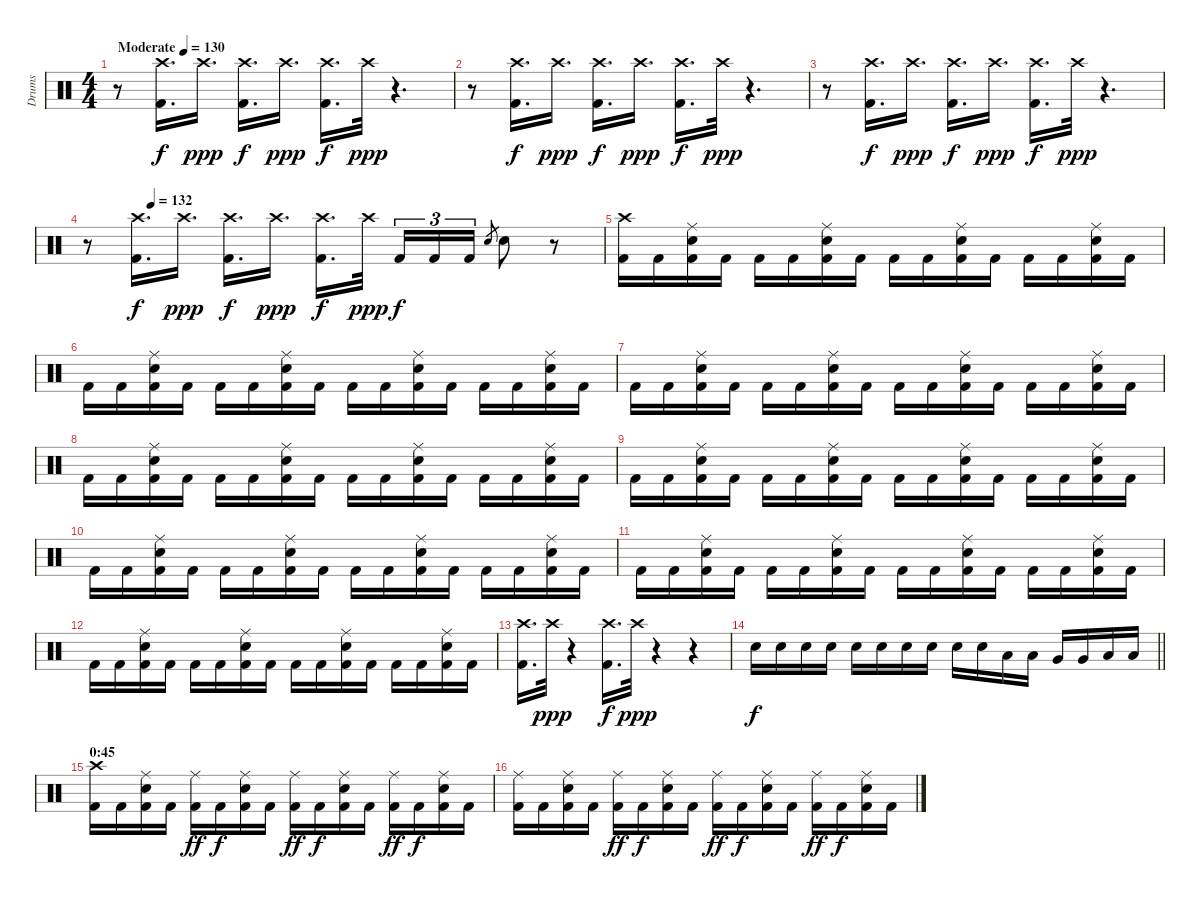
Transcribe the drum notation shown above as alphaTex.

\track ("Drums" "Drums") {instrument percussion}
\staff {score}
\articulation defaults
\ts (4 4)
\tempo (130 "Moderate")
\clef neutral
\ks c
r.8{dy f} ("Crash high (hit)" "Kick (hit) 2").16{d} "Crash high (hit)".16{d dy ppp} ("Crash high (hit)" "Kick (hit) 2").16{d dy f} "Crash high (hit)".16{d dy ppp} ("Crash high (hit)" "Kick (hit) 2").16{d dy f} "Crash high (hit)".32{dy ppp} r.4{d} |
r.8 ("Crash high (hit)" "Kick (hit) 2").16{d dy f} "Crash high (hit)".16{d dy ppp} ("Crash high (hit)" "Kick (hit) 2").16{d dy f} "Crash high (hit)".16{d dy ppp} ("Crash high (hit)" "Kick (hit) 2").16{d dy f} "Crash high (hit)".32{dy ppp} r.4{d} |
r.8 ("Crash high (hit)" "Kick (hit) 2").16{d dy f} "Crash high (hit)".16{d dy ppp} ("Crash high (hit)" "Kick (hit) 2").16{d dy f} "Crash high (hit)".16{d dy ppp} ("Crash high (hit)" "Kick (hit) 2").16{d dy f} "Crash high (hit)".32{dy ppp} r.4{d} |
\tempo (132 0.125)
r.8 ("Crash high (hit)" "Kick (hit) 2").16{d dy f} "Crash high (hit)".16{d dy ppp} ("Crash high (hit)" "Kick (hit) 2").16{d dy f} "Crash high (hit)".16{d dy ppp} ("Crash high (hit)" "Kick (hit) 2").16{d dy f} "Crash high (hit)".32{dy ppp beam splitsecondary} "Kick (hit) 2".16{tu (3 2) dy f} "Kick (hit) 2".16{tu (3 2)} "Kick (hit) 2".16{tu (3 2)} "Snare (hit) 2".8{gr} "Snare (hit) 2".8 r.8 |
("Crash high (hit)" "Kick (hit) 2").16 "Kick (hit) 2".16 ("Ride (middle)" "Snare (hit) 2" "Kick (hit) 2").16 "Kick (hit) 2".16 "Kick (hit) 2".16 "Kick (hit) 2".16 ("Ride (middle)" "Snare (hit) 2" "Kick (hit) 2").16 "Kick (hit) 2".16 "Kick (hit) 2".16 "Kick (hit) 2".16 ("Ride (middle)" "Snare (hit) 2" "Kick (hit) 2").16 "Kick (hit) 2".16 "Kick (hit) 2".16 "Kick (hit) 2".16 ("Ride (middle)" "Snare (hit) 2" "Kick (hit) 2").16 "Kick (hit) 2".16 |
"Kick (hit) 2".16 "Kick (hit) 2".16 ("Ride (middle)" "Snare (hit) 2" "Kick (hit) 2").16 "Kick (hit) 2".16 "Kick (hit) 2".16 "Kick (hit) 2".16 ("Ride (middle)" "Snare (hit) 2" "Kick (hit) 2").16 "Kick (hit) 2".16 "Kick (hit) 2".16 "Kick (hit) 2".16 ("Ride (middle)" "Snare (hit) 2" "Kick (hit) 2").16 "Kick (hit) 2".16 "Kick (hit) 2".16 "Kick (hit) 2".16 ("Ride (middle)" "Snare (hit) 2" "Kick (hit) 2").16 "Kick (hit) 2".16 |
"Kick (hit) 2".16 "Kick (hit) 2".16 ("Ride (middle)" "Snare (hit) 2" "Kick (hit) 2").16 "Kick (hit) 2".16 "Kick (hit) 2".16 "Kick (hit) 2".16 ("Ride (middle)" "Snare (hit) 2" "Kick (hit) 2").16 "Kick (hit) 2".16 "Kick (hit) 2".16 "Kick (hit) 2".16 ("Ride (middle)" "Snare (hit) 2" "Kick (hit) 2").16 "Kick (hit) 2".16 "Kick (hit) 2".16 "Kick (hit) 2".16 ("Ride (middle)" "Snare (hit) 2" "Kick (hit) 2").16 "Kick (hit) 2".16 |
"Kick (hit) 2".16 "Kick (hit) 2".16 ("Ride (middle)" "Snare (hit) 2" "Kick (hit) 2").16 "Kick (hit) 2".16 "Kick (hit) 2".16 "Kick (hit) 2".16 ("Ride (middle)" "Snare (hit) 2" "Kick (hit) 2").16 "Kick (hit) 2".16 "Kick (hit) 2".16 "Kick (hit) 2".16 ("Ride (middle)" "Snare (hit) 2" "Kick (hit) 2").16 "Kick (hit) 2".16 "Kick (hit) 2".16 "Kick (hit) 2".16 ("Ride (middle)" "Snare (hit) 2" "Kick (hit) 2").16 "Kick (hit) 2".16 |
"Kick (hit) 2".16 "Kick (hit) 2".16 ("Ride (middle)" "Snare (hit) 2" "Kick (hit) 2").16 "Kick (hit) 2".16 "Kick (hit) 2".16 "Kick (hit) 2".16 ("Ride (middle)" "Snare (hit) 2" "Kick (hit) 2").16 "Kick (hit) 2".16 "Kick (hit) 2".16 "Kick (hit) 2".16 ("Ride (middle)" "Snare (hit) 2" "Kick (hit) 2").16 "Kick (hit) 2".16 "Kick (hit) 2".16 "Kick (hit) 2".16 ("Ride (middle)" "Snare (hit) 2" "Kick (hit) 2").16 "Kick (hit) 2".16 |
"Kick (hit) 2".16 "Kick (hit) 2".16 ("Ride (middle)" "Snare (hit) 2" "Kick (hit) 2").16 "Kick (hit) 2".16 "Kick (hit) 2".16 "Kick (hit) 2".16 ("Ride (middle)" "Snare (hit) 2" "Kick (hit) 2").16 "Kick (hit) 2".16 "Kick (hit) 2".16 "Kick (hit) 2".16 ("Ride (middle)" "Snare (hit) 2" "Kick (hit) 2").16 "Kick (hit) 2".16 "Kick (hit) 2".16 "Kick (hit) 2".16 ("Ride (middle)" "Snare (hit) 2" "Kick (hit) 2").16 "Kick (hit) 2".16 |
"Kick (hit) 2".16 "Kick (hit) 2".16 ("Ride (middle)" "Snare (hit) 2" "Kick (hit) 2").16 "Kick (hit) 2".16 "Kick (hit) 2".16 "Kick (hit) 2".16 ("Ride (middle)" "Snare (hit) 2" "Kick (hit) 2").16 "Kick (hit) 2".16 "Kick (hit) 2".16 "Kick (hit) 2".16 ("Ride (middle)" "Snare (hit) 2" "Kick (hit) 2").16 "Kick (hit) 2".16 "Kick (hit) 2".16 "Kick (hit) 2".16 ("Ride (middle)" "Snare (hit) 2" "Kick (hit) 2").16 "Kick (hit) 2".16 |
"Kick (hit) 2".16 "Kick (hit) 2".16 ("Ride (middle)" "Snare (hit) 2" "Kick (hit) 2").16 "Kick (hit) 2".16 "Kick (hit) 2".16 "Kick (hit) 2".16 ("Ride (middle)" "Snare (hit) 2" "Kick (hit) 2").16 "Kick (hit) 2".16 "Kick (hit) 2".16 "Kick (hit) 2".16 ("Ride (middle)" "Snare (hit) 2" "Kick (hit) 2").16 "Kick (hit) 2".16 "Kick (hit) 2".16 "Kick (hit) 2".16 ("Ride (middle)" "Snare (hit) 2" "Kick (hit) 2").16 "Kick (hit) 2".16 |
("Crash high (hit)" "Kick (hit) 2").16{d} "Crash high (hit)".32{dy ppp} r.4 ("Crash high (hit)" "Kick (hit) 2").16{d dy f} "Crash high (hit)".32{dy ppp} r.4 r.4 |
\barLineRight lightlight "Snare (hit) 2".16{dy f} "Snare (hit) 2".16 "Snare (hit) 2".16 "Snare (hit) 2".16 "Snare (hit) 2".16 "Snare (hit) 2".16 "Snare (hit) 2".16 "Snare (hit) 2".16 "Snare (hit) 2".16 "Snare (hit) 2".16 "Low Tom (hit)".16 "Low Tom (hit)".16 "Very Low Tom (hit)".16 "Very Low Tom (hit)".16 "Low Floor Tom (hit)".16 "Low Floor Tom (hit)".16
|
\section ("" "0:45")
("Crash high (hit)" "Kick (hit) 2").16 "Kick (hit) 2".16 ("Ride (middle)" "Snare (hit) 2" "Kick (hit) 2").16 "Kick (hit) 2".16 ("Ride (middle)" "Kick (hit) 2").16{dy ff} "Kick (hit) 2".16{dy f} ("Ride (middle)" "Snare (hit) 2" "Kick (hit) 2").16 "Kick (hit) 2".16 ("Ride (middle)" "Kick (hit) 2").16{dy ff} "Kick (hit) 2".16{dy f} ("Ride (middle)" "Snare (hit) 2" "Kick (hit) 2").16 "Kick (hit) 2".16 ("Ride (middle)" "Kick (hit) 2").16{dy ff} "Kick (hit) 2".16{dy f} ("Ride (middle)" "Snare (hit) 2" "Kick (hit) 2").16 "Kick (hit) 2".16 |
("Ride (middle)" "Kick (hit) 2").16 "Kick (hit) 2".16 ("Ride (middle)" "Snare (hit) 2" "Kick (hit) 2").16 "Kick (hit) 2".16 ("Ride (middle)" "Kick (hit) 2").16{dy ff} "Kick (hit) 2".16{dy f} ("Ride (middle)" "Snare (hit) 2" "Kick (hit) 2").16 "Kick (hit) 2".16 ("Ride (middle)" "Kick (hit) 2").16{dy ff} "Kick (hit) 2".16{dy f} ("Ride (middle)" "Snare (hit) 2" "Kick (hit) 2").16 "Kick (hit) 2".16 ("Ride (middle)" "Kick (hit) 2").16{dy ff} "Kick (hit) 2".16{dy f} ("Ride (middle)" "Snare (hit) 2" "Kick (hit) 2").16 "Kick (hit) 2".16
